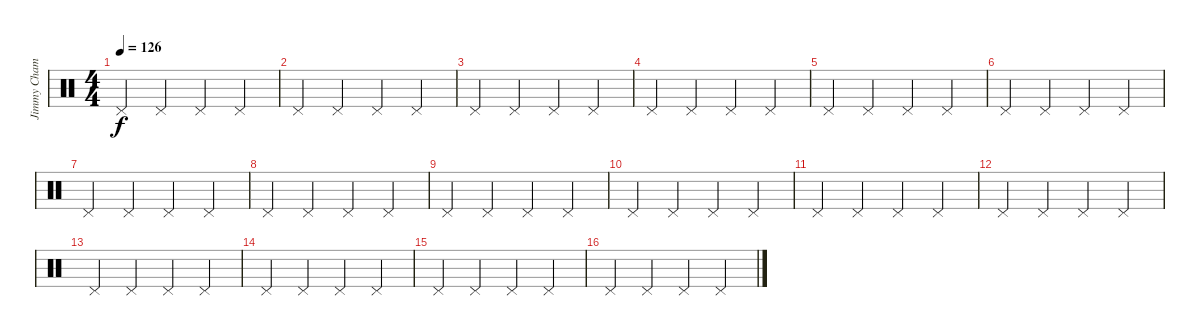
\track ("Jimmy Chamberlain" "Jimmy Cham") {instrument percussion}
\staff {score}
\articulation defaults
\ts (4 4)
\tempo 126
\clef neutral
\ks c "Pedal Hi-Hat (hit)".4{dy f} "Pedal Hi-Hat (hit)".4 "Pedal Hi-Hat (hit)".4 "Pedal Hi-Hat (hit)".4
|
"Pedal Hi-Hat (hit)".4 "Pedal Hi-Hat (hit)".4 "Pedal Hi-Hat (hit)".4 "Pedal Hi-Hat (hit)".4 |
"Pedal Hi-Hat (hit)".4 "Pedal Hi-Hat (hit)".4 "Pedal Hi-Hat (hit)".4 "Pedal Hi-Hat (hit)".4 |
"Pedal Hi-Hat (hit)".4 "Pedal Hi-Hat (hit)".4 "Pedal Hi-Hat (hit)".4 "Pedal Hi-Hat (hit)".4 |
"Pedal Hi-Hat (hit)".4 "Pedal Hi-Hat (hit)".4 "Pedal Hi-Hat (hit)".4 "Pedal Hi-Hat (hit)".4 |
"Pedal Hi-Hat (hit)".4 "Pedal Hi-Hat (hit)".4 "Pedal Hi-Hat (hit)".4 "Pedal Hi-Hat (hit)".4 |
"Pedal Hi-Hat (hit)".4 "Pedal Hi-Hat (hit)".4 "Pedal Hi-Hat (hit)".4 "Pedal Hi-Hat (hit)".4 |
"Pedal Hi-Hat (hit)".4 "Pedal Hi-Hat (hit)".4 "Pedal Hi-Hat (hit)".4 "Pedal Hi-Hat (hit)".4 |
"Pedal Hi-Hat (hit)".4 "Pedal Hi-Hat (hit)".4 "Pedal Hi-Hat (hit)".4 "Pedal Hi-Hat (hit)".4 |
"Pedal Hi-Hat (hit)".4 "Pedal Hi-Hat (hit)".4 "Pedal Hi-Hat (hit)".4 "Pedal Hi-Hat (hit)".4 |
"Pedal Hi-Hat (hit)".4 "Pedal Hi-Hat (hit)".4 "Pedal Hi-Hat (hit)".4 "Pedal Hi-Hat (hit)".4 |
"Pedal Hi-Hat (hit)".4 "Pedal Hi-Hat (hit)".4 "Pedal Hi-Hat (hit)".4 "Pedal Hi-Hat (hit)".4 |
"Pedal Hi-Hat (hit)".4 "Pedal Hi-Hat (hit)".4 "Pedal Hi-Hat (hit)".4 "Pedal Hi-Hat (hit)".4 |
"Pedal Hi-Hat (hit)".4 "Pedal Hi-Hat (hit)".4 "Pedal Hi-Hat (hit)".4 "Pedal Hi-Hat (hit)".4 |
"Pedal Hi-Hat (hit)".4 "Pedal Hi-Hat (hit)".4 "Pedal Hi-Hat (hit)".4 "Pedal Hi-Hat (hit)".4 |
"Pedal Hi-Hat (hit)".4 "Pedal Hi-Hat (hit)".4 "Pedal Hi-Hat (hit)".4 "Pedal Hi-Hat (hit)".4
